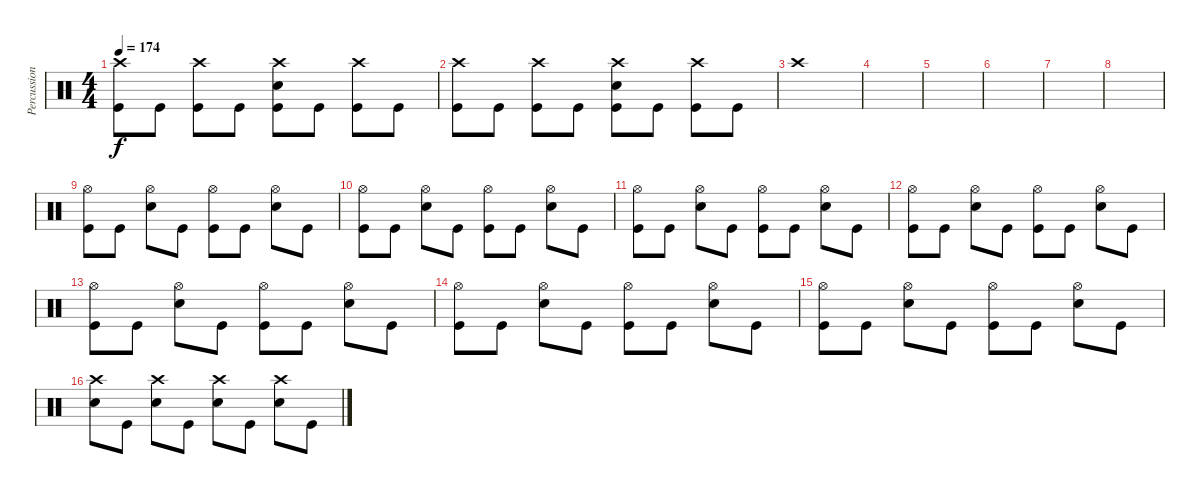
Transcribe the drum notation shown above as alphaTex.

\track ("Percussion" "Percussion") {instrument percussion}
\staff {score}
\articulation defaults
\ts (4 4)
\tempo 174
\clef neutral
\ks c
("Crash high (hit)" "Kick (hit)").8{dy f} "Kick (hit)".8 ("Crash high (hit)" "Kick (hit)").8 "Kick (hit)".8 ("Crash high (hit)" "Electric Snare (hit)" "Kick (hit)").8 "Kick (hit)".8 ("Crash high (hit)" "Kick (hit)").8 "Kick (hit)".8 |
("Crash high (hit)" "Kick (hit)").8 "Kick (hit)".8 ("Crash high (hit)" "Kick (hit)").8 "Kick (hit)".8 ("Crash high (hit)" "Electric Snare (hit)" "Kick (hit)").8 "Kick (hit)".8 ("Crash high (hit)" "Kick (hit)").8 "Kick (hit)".8 |
"Crash high (hit)".1 |
|
|
|
|
|
("Hi-Hat (open)" "Kick (hit)").8 "Kick (hit)".8 ("Hi-Hat (open)" "Electric Snare (hit)").8 "Kick (hit)".8 ("Hi-Hat (open)" "Kick (hit)").8 "Kick (hit)".8 ("Hi-Hat (open)" "Electric Snare (hit)").8 "Kick (hit)".8 |
("Hi-Hat (open)" "Kick (hit)").8 "Kick (hit)".8 ("Hi-Hat (open)" "Electric Snare (hit)").8 "Kick (hit)".8 ("Hi-Hat (open)" "Kick (hit)").8 "Kick (hit)".8 ("Hi-Hat (open)" "Electric Snare (hit)").8 "Kick (hit)".8 |
("Hi-Hat (open)" "Kick (hit)").8 "Kick (hit)".8 ("Hi-Hat (open)" "Electric Snare (hit)").8 "Kick (hit)".8 ("Hi-Hat (open)" "Kick (hit)").8 "Kick (hit)".8 ("Hi-Hat (open)" "Electric Snare (hit)").8 "Kick (hit)".8 |
("Hi-Hat (open)" "Kick (hit)").8 "Kick (hit)".8 ("Hi-Hat (open)" "Electric Snare (hit)").8 "Kick (hit)".8 ("Hi-Hat (open)" "Kick (hit)").8 "Kick (hit)".8 ("Hi-Hat (open)" "Electric Snare (hit)").8 "Kick (hit)".8 |
("Hi-Hat (open)" "Kick (hit)").8 "Kick (hit)".8 ("Hi-Hat (open)" "Electric Snare (hit)").8 "Kick (hit)".8 ("Hi-Hat (open)" "Kick (hit)").8 "Kick (hit)".8 ("Hi-Hat (open)" "Electric Snare (hit)").8 "Kick (hit)".8 |
("Hi-Hat (open)" "Kick (hit)").8 "Kick (hit)".8 ("Hi-Hat (open)" "Electric Snare (hit)").8 "Kick (hit)".8 ("Hi-Hat (open)" "Kick (hit)").8 "Kick (hit)".8 ("Hi-Hat (open)" "Electric Snare (hit)").8 "Kick (hit)".8 |
("Hi-Hat (open)" "Kick (hit)").8 "Kick (hit)".8 ("Hi-Hat (open)" "Electric Snare (hit)").8 "Kick (hit)".8 ("Hi-Hat (open)" "Kick (hit)").8 "Kick (hit)".8 ("Hi-Hat (open)" "Electric Snare (hit)").8 "Kick (hit)".8 |
("Crash high (hit)" "Electric Snare (hit)").8 "Kick (hit)".8 ("Crash high (hit)" "Electric Snare (hit)").8 "Kick (hit)".8 ("Crash high (hit)" "Electric Snare (hit)").8 "Kick (hit)".8 ("Crash high (hit)" "Electric Snare (hit)").8 "Kick (hit)".8
